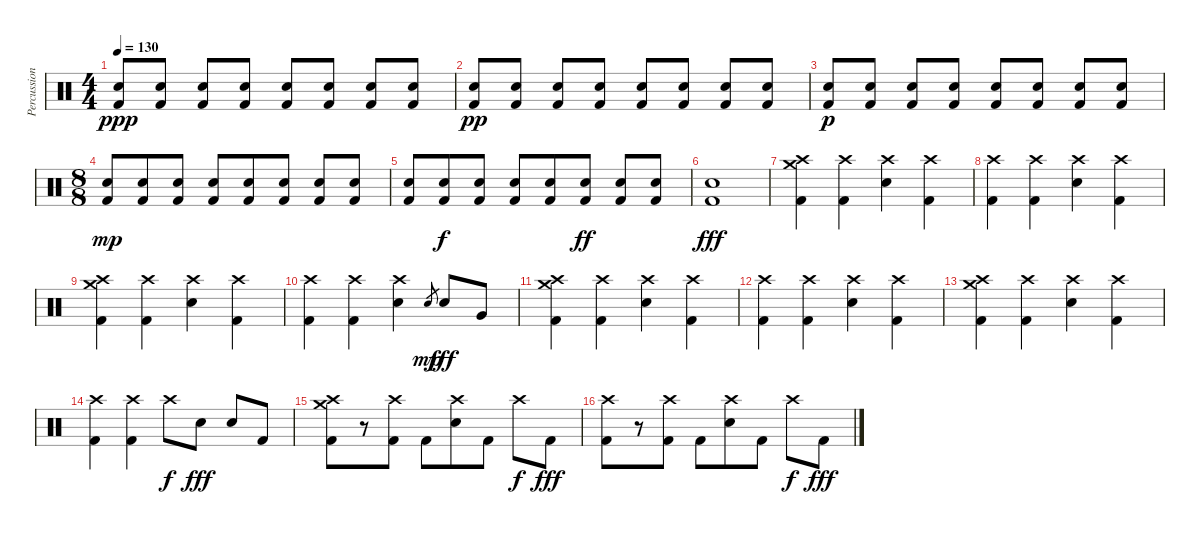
\track ("Percussion" "Percussion") {instrument percussion}
\staff {score}
\articulation defaults
\ts (4 4)
\tempo 130
\clef neutral
\ks c
("Electric Snare (hit)" "Kick (hit) 2").8{dy ppp} ("Electric Snare (hit)" "Kick (hit) 2").8 ("Electric Snare (hit)" "Kick (hit) 2").8 ("Electric Snare (hit)" "Kick (hit) 2").8 ("Electric Snare (hit)" "Kick (hit) 2").8 ("Electric Snare (hit)" "Kick (hit) 2").8 ("Electric Snare (hit)" "Kick (hit) 2").8 ("Electric Snare (hit)" "Kick (hit) 2").8 |
("Electric Snare (hit)" "Kick (hit) 2").8{dy pp} ("Electric Snare (hit)" "Kick (hit) 2").8 ("Electric Snare (hit)" "Kick (hit) 2").8 ("Electric Snare (hit)" "Kick (hit) 2").8 ("Electric Snare (hit)" "Kick (hit) 2").8 ("Electric Snare (hit)" "Kick (hit) 2").8 ("Electric Snare (hit)" "Kick (hit) 2").8 ("Electric Snare (hit)" "Kick (hit) 2").8 |
("Electric Snare (hit)" "Kick (hit) 2").8{dy p} ("Electric Snare (hit)" "Kick (hit) 2").8 ("Electric Snare (hit)" "Kick (hit) 2").8 ("Electric Snare (hit)" "Kick (hit) 2").8 ("Electric Snare (hit)" "Kick (hit) 2").8 ("Electric Snare (hit)" "Kick (hit) 2").8 ("Electric Snare (hit)" "Kick (hit) 2").8 ("Electric Snare (hit)" "Kick (hit) 2").8 |
\ts (8 8)
("Electric Snare (hit)" "Kick (hit) 2").8{dy mp} ("Electric Snare (hit)" "Kick (hit) 2").8 ("Electric Snare (hit)" "Kick (hit) 2").8 ("Electric Snare (hit)" "Kick (hit) 2").8 ("Electric Snare (hit)" "Kick (hit) 2").8 ("Electric Snare (hit)" "Kick (hit) 2").8 ("Electric Snare (hit)" "Kick (hit) 2").8 ("Electric Snare (hit)" "Kick (hit) 2").8 |
("Electric Snare (hit)" "Kick (hit) 2").8 ("Electric Snare (hit)" "Kick (hit) 2").8{dy f} ("Electric Snare (hit)" "Kick (hit) 2").8 ("Electric Snare (hit)" "Kick (hit) 2").8 ("Electric Snare (hit)" "Kick (hit) 2").8 ("Electric Snare (hit)" "Kick (hit) 2").8{dy ff} ("Electric Snare (hit)" "Kick (hit) 2").8 ("Electric Snare (hit)" "Kick (hit) 2").8 |
("Electric Snare (hit)" "Kick (hit) 2").1{dy fff} |
("Crash high (hit)" "Crash medium (hit)" "Kick (hit) 2").4 ("Crash high (hit)" "Kick (hit) 2").4 ("Crash high (hit)" "Electric Snare (hit)").4 ("Crash high (hit)" "Kick (hit) 2").4 |
("Crash high (hit)" "Kick (hit) 2").4 ("Crash high (hit)" "Kick (hit) 2").4 ("Crash high (hit)" "Electric Snare (hit)").4 ("Crash high (hit)" "Kick (hit) 2").4 |
("Crash high (hit)" "Crash medium (hit)" "Kick (hit) 2").4 ("Crash high (hit)" "Kick (hit) 2").4 ("Crash high (hit)" "Electric Snare (hit)").4 ("Crash high (hit)" "Kick (hit) 2").4 |
("Crash high (hit)" "Kick (hit) 2").4 ("Crash high (hit)" "Kick (hit) 2").4 ("Crash high (hit)" "Electric Snare (hit)").4 "Electric Snare (hit)".8{gr dy mp} "Electric Snare (hit)".8{dy fff} "Very Low Tom (hit)".8 |
("Crash high (hit)" "Crash medium (hit)" "Kick (hit) 2").4 ("Crash high (hit)" "Kick (hit) 2").4 ("Crash high (hit)" "Electric Snare (hit)").4 ("Crash high (hit)" "Kick (hit) 2").4 |
("Crash high (hit)" "Kick (hit) 2").4 ("Crash high (hit)" "Kick (hit) 2").4 ("Crash high (hit)" "Electric Snare (hit)").4 ("Crash high (hit)" "Kick (hit) 2").4 |
("Crash high (hit)" "Crash medium (hit)" "Kick (hit) 2").4 ("Crash high (hit)" "Kick (hit) 2").4 ("Crash high (hit)" "Electric Snare (hit)").4 ("Crash high (hit)" "Kick (hit) 2").4 |
("Crash high (hit)" "Kick (hit) 2").4 ("Crash high (hit)" "Kick (hit) 2").4 "Crash high (hit)".8{dy f} "Electric Snare (hit)".8{dy fff} "Electric Snare (hit)".8 "Kick (hit) 2".8 |
("Crash high (hit)" "Crash medium (hit)" "Kick (hit) 2").8 r.8 ("Crash high (hit)" "Kick (hit) 2").8 "Kick (hit) 2".8 ("Crash high (hit)" "Electric Snare (hit)").8 "Kick (hit) 2".8 "Crash high (hit)".8{dy f} "Kick (hit) 2".8{dy fff} |
("Crash high (hit)" "Kick (hit) 2").8 r.8 ("Crash high (hit)" "Kick (hit) 2").8 "Kick (hit) 2".8 ("Crash high (hit)" "Electric Snare (hit)").8 "Kick (hit) 2".8 "Crash high (hit)".8{dy f} "Kick (hit) 2".8{dy fff}
